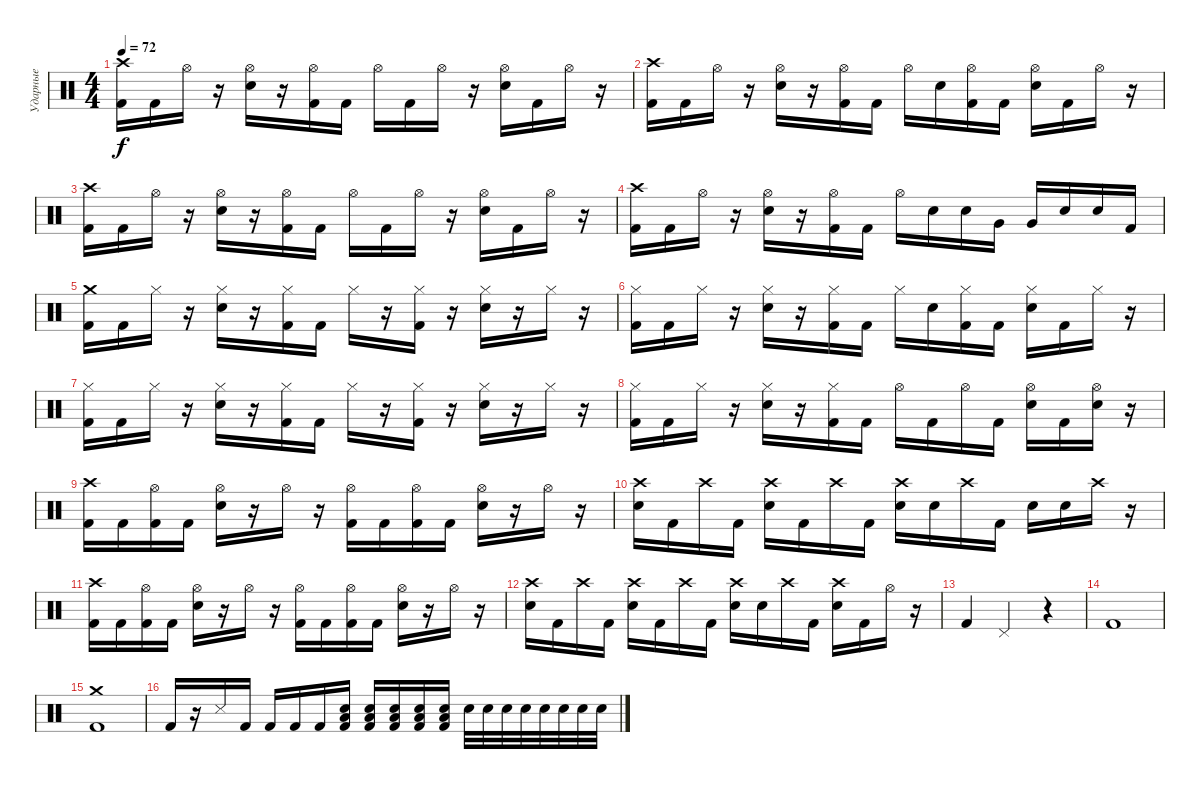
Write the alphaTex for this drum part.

\track ("Ударные" "Ударные") {instrument percussion}
\staff {score}
\articulation defaults
\ts (4 4)
\tempo 72
\clef neutral
\ks c
("Crash high (hit)" "Kick (hit) 2").16{dy f} "Kick (hit) 2".16 "Hi-Hat (open)".16 r.16 ("Hi-Hat (open)" "Electric Snare (hit)").16 r.16 ("Hi-Hat (open)" "Kick (hit) 2").16 "Kick (hit) 2".16 "Hi-Hat (open)".16 "Kick (hit) 2".16 "Hi-Hat (open)".16 r.16 ("Hi-Hat (open)" "Electric Snare (hit)").16 "Kick (hit) 2".16 "Hi-Hat (open)".16 r.16 |
("Crash high (hit)" "Kick (hit) 2").16 "Kick (hit) 2".16 "Hi-Hat (open)".16 r.16 ("Hi-Hat (open)" "Electric Snare (hit)").16 r.16 ("Hi-Hat (open)" "Kick (hit) 2").16 "Kick (hit) 2".16 "Hi-Hat (open)".16 "Electric Snare (hit)".16 ("Hi-Hat (open)" "Kick (hit) 2").16 "Kick (hit) 2".16 ("Hi-Hat (open)" "Electric Snare (hit)").16 "Kick (hit) 2".16 "Hi-Hat (open)".16 r.16 |
("Crash high (hit)" "Kick (hit) 2").16 "Kick (hit) 2".16 "Hi-Hat (open)".16 r.16 ("Hi-Hat (open)" "Electric Snare (hit)").16 r.16 ("Hi-Hat (open)" "Kick (hit) 2").16 "Kick (hit) 2".16 "Hi-Hat (open)".16 "Kick (hit) 2".16 "Hi-Hat (open)".16 r.16 ("Hi-Hat (open)" "Electric Snare (hit)").16 "Kick (hit) 2".16 "Hi-Hat (open)".16 r.16 |
("Crash high (hit)" "Kick (hit) 2").16 "Kick (hit) 2".16 "Hi-Hat (open)".16 r.16 ("Hi-Hat (open)" "Electric Snare (hit)").16 r.16 ("Hi-Hat (open)" "Kick (hit) 2").16 "Kick (hit) 2".16 "Hi-Hat (open)".16 "Electric Snare (hit)".16 "Electric Snare (hit)".16 "Very Low Tom (hit)".16 "Very Low Tom (hit)".16 "Electric Snare (hit)".16 "Electric Snare (hit)".16 "Kick (hit) 2".16 |
("Crash medium (hit)" "Kick (hit) 2").16 "Kick (hit) 2".16 "Hi-Hat (closed)".16 r.16 ("Hi-Hat (closed)" "Electric Snare (hit)").16 r.16 ("Hi-Hat (closed)" "Kick (hit) 2").16 "Kick (hit) 2".16 "Hi-Hat (closed)".16 r.16 ("Hi-Hat (closed)" "Kick (hit) 2").16 r.16 ("Hi-Hat (closed)" "Electric Snare (hit)").16 r.16 "Hi-Hat (closed)".16 r.16 |
("Hi-Hat (closed)" "Kick (hit) 2").16 "Kick (hit) 2".16 "Hi-Hat (closed)".16 r.16 ("Hi-Hat (closed)" "Electric Snare (hit)").16 r.16 ("Hi-Hat (closed)" "Kick (hit) 2").16 "Kick (hit) 2".16 "Hi-Hat (closed)".16 "Electric Snare (hit)".16 ("Hi-Hat (closed)" "Kick (hit) 2").16 "Kick (hit) 2".16 ("Hi-Hat (closed)" "Electric Snare (hit)").16 "Kick (hit) 2".16 "Hi-Hat (closed)".16 r.16 |
("Hi-Hat (closed)" "Kick (hit) 2").16 "Kick (hit) 2".16 "Hi-Hat (closed)".16 r.16 ("Hi-Hat (closed)" "Electric Snare (hit)").16 r.16 ("Hi-Hat (closed)" "Kick (hit) 2").16 "Kick (hit) 2".16 "Hi-Hat (closed)".16 r.16 ("Hi-Hat (closed)" "Kick (hit) 2").16 r.16 ("Hi-Hat (closed)" "Electric Snare (hit)").16 r.16 "Hi-Hat (closed)".16 r.16 |
("Hi-Hat (closed)" "Kick (hit) 2").16 "Kick (hit) 2".16 "Hi-Hat (closed)".16 r.16 ("Hi-Hat (closed)" "Electric Snare (hit)").16 r.16 ("Hi-Hat (closed)" "Kick (hit) 2").16 "Kick (hit) 2".16 "Hi-Hat (open)".16 "Kick (hit) 2".16 "Hi-Hat (open)".16 "Kick (hit) 2".16 ("Hi-Hat (open)" "Electric Snare (hit)").16 "Kick (hit) 2".16 ("Hi-Hat (open)" "Electric Snare (hit)").16 r.16 |
("Crash high (hit)" "Kick (hit) 2").16 "Kick (hit) 2".16 ("Hi-Hat (open)" "Kick (hit) 2").16 "Kick (hit) 2".16 ("Hi-Hat (open)" "Electric Snare (hit)").16 r.16 "Hi-Hat (open)".16 r.16 ("Hi-Hat (open)" "Kick (hit) 2").16 "Kick (hit) 2".16 ("Hi-Hat (open)" "Kick (hit) 2").16 "Kick (hit) 2".16 ("Hi-Hat (open)" "Electric Snare (hit)").16 r.16 "Hi-Hat (open)".16 r.16 |
("Crash high (hit)" "Electric Snare (hit)").16 "Kick (hit) 2".16 "Crash high (hit)".16 "Kick (hit) 2".16 ("Crash high (hit)" "Electric Snare (hit)").16 "Kick (hit) 2".16 "Crash high (hit)".16 "Kick (hit) 2".16 ("Crash high (hit)" "Electric Snare (hit)").16 "Electric Snare (hit)".16 "Crash high (hit)".16 "Kick (hit) 2".16 "Electric Snare (hit)".16 "Electric Snare (hit)".16 "Crash high (hit)".16 r.16 |
("Crash high (hit)" "Kick (hit) 2").16 "Kick (hit) 2".16 ("Hi-Hat (open)" "Kick (hit) 2").16 "Kick (hit) 2".16 ("Hi-Hat (open)" "Electric Snare (hit)").16 r.16 "Hi-Hat (open)".16 r.16 ("Hi-Hat (open)" "Kick (hit) 2").16 "Kick (hit) 2".16 ("Hi-Hat (open)" "Kick (hit) 2").16 "Kick (hit) 2".16 ("Hi-Hat (open)" "Electric Snare (hit)").16 r.16 "Hi-Hat (open)".16 r.16 |
("Crash high (hit)" "Electric Snare (hit)").16 "Kick (hit) 2".16 "Crash high (hit)".16 "Kick (hit) 2".16 ("Crash high (hit)" "Electric Snare (hit)").16 "Kick (hit) 2".16 "Crash high (hit)".16 "Kick (hit) 2".16 ("Crash high (hit)" "Electric Snare (hit)").16 "Electric Snare (hit)".16 "Crash high (hit)".16 "Kick (hit) 2".16 ("Crash high (hit)" "Electric Snare (hit)").16 "Kick (hit) 2".16 "Hi-Hat (open)".16 r.16 |
"Kick (hit) 2".4 "Pedal Hi-Hat (hit)".2 r.4 |
"Kick (hit) 2".1 |
("Crash medium (hit)" "Kick (hit) 2").1 |
"Kick (hit) 2".16 r.16 "Snare (side stick) 3".16 "Kick (hit) 2".16 "Kick (hit) 2".16 "Kick (hit) 2".16 "Kick (hit) 2".16 ("Low Floor Tom (hit)" "Electric Snare (hit)" "Kick (hit) 2").16 ("Low Floor Tom (hit)" "Electric Snare (hit)" "Kick (hit) 2").16 ("Low Floor Tom (hit)" "Electric Snare (hit)" "Kick (hit) 2").16 ("Low Floor Tom (hit)" "Electric Snare (hit)" "Kick (hit) 2").16 ("Low Floor Tom (hit)" "Electric Snare (hit)" "Kick (hit) 2").16 "Electric Snare (hit)".32 "Electric Snare (hit)".32 "Electric Snare (hit)".32 "Electric Snare (hit)".32 "Electric Snare (hit)".32 "Electric Snare (hit)".32 "Electric Snare (hit)".32 "Electric Snare (hit)".32
